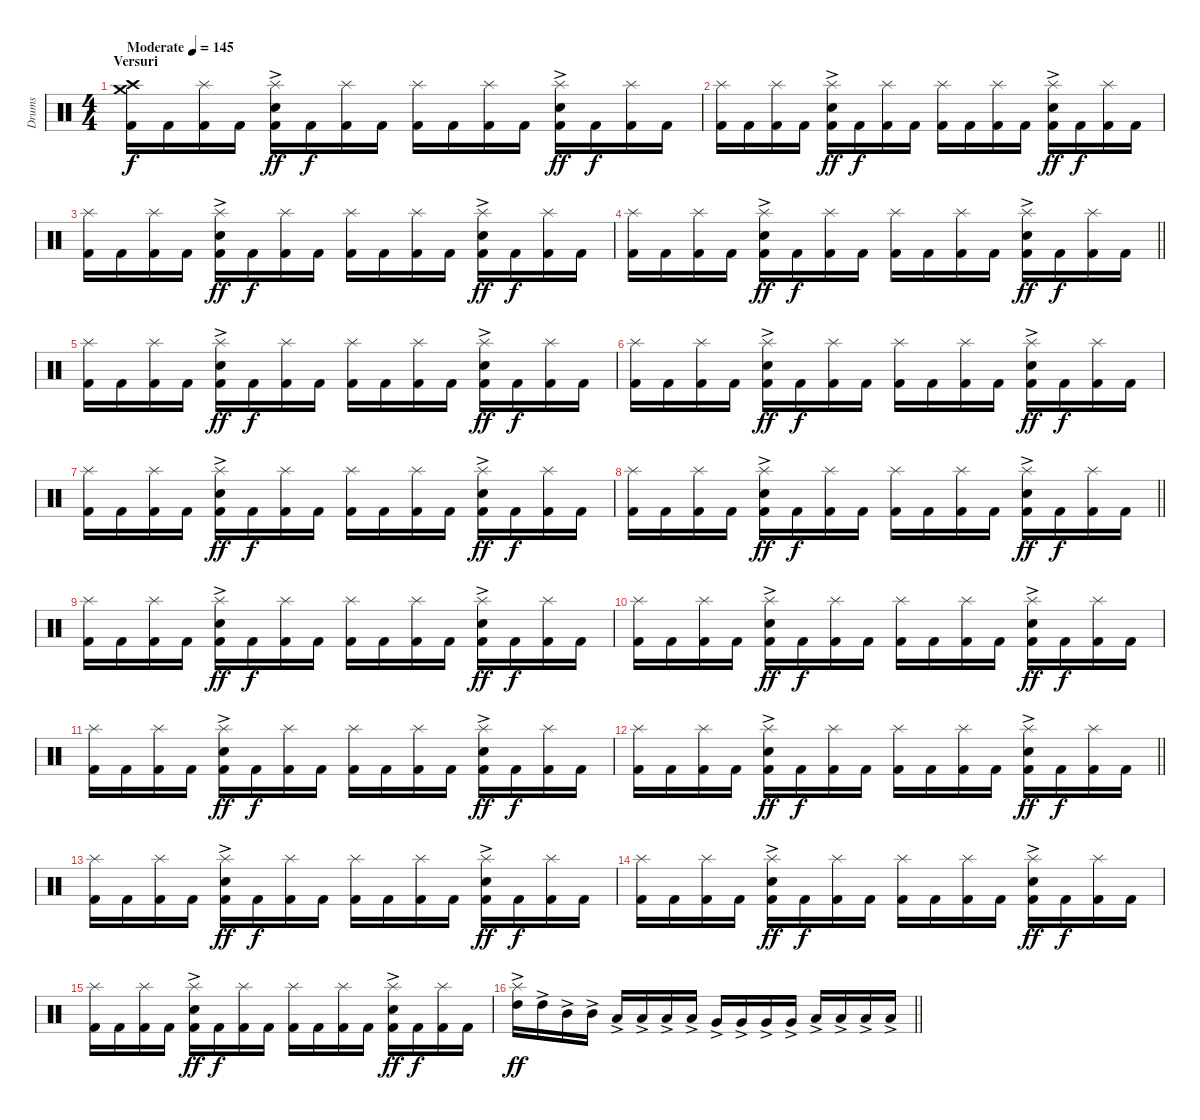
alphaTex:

\track ("Drums" "Drums") {instrument percussion}
\staff {score}
\articulation defaults
\ts (4 4)
\section ("" "Versuri")
\tempo (145 "Moderate")
\clef neutral
\ks c
("Kick (hit) 2" "Crash medium (hit)" "Crash high (hit)").16{dy f} "Kick (hit) 2".16 ("Kick (hit) 2" "Splash (hit)").16 "Kick (hit) 2".16 ("Kick (hit) 2" "Snare (hit) 2"{ac} "Splash (hit)").16{dy ff} "Kick (hit) 2".16{dy f} ("Kick (hit) 2" "Splash (hit)").16 "Kick (hit) 2".16 ("Kick (hit) 2" "Splash (hit)").16 "Kick (hit) 2".16 ("Kick (hit) 2" "Splash (hit)").16 "Kick (hit) 2".16 ("Kick (hit) 2" "Snare (hit) 2"{ac} "Splash (hit)").16{dy ff} "Kick (hit) 2".16{dy f} ("Kick (hit) 2" "Splash (hit)").16 "Kick (hit) 2".16 |
("Kick (hit) 2" "Splash (hit)").16 "Kick (hit) 2".16 ("Kick (hit) 2" "Splash (hit)").16 "Kick (hit) 2".16 ("Kick (hit) 2" "Snare (hit) 2"{ac} "Splash (hit)").16{dy ff} "Kick (hit) 2".16{dy f} ("Kick (hit) 2" "Splash (hit)").16 "Kick (hit) 2".16 ("Kick (hit) 2" "Splash (hit)").16 "Kick (hit) 2".16 ("Kick (hit) 2" "Splash (hit)").16 "Kick (hit) 2".16 ("Kick (hit) 2" "Snare (hit) 2"{ac} "Splash (hit)").16{dy ff} "Kick (hit) 2".16{dy f} ("Kick (hit) 2" "Splash (hit)").16 "Kick (hit) 2".16 |
("Kick (hit) 2" "Splash (hit)").16 "Kick (hit) 2".16 ("Kick (hit) 2" "Splash (hit)").16 "Kick (hit) 2".16 ("Kick (hit) 2" "Snare (hit) 2"{ac} "Splash (hit)").16{dy ff} "Kick (hit) 2".16{dy f} ("Kick (hit) 2" "Splash (hit)").16 "Kick (hit) 2".16 ("Kick (hit) 2" "Splash (hit)").16 "Kick (hit) 2".16 ("Kick (hit) 2" "Splash (hit)").16 "Kick (hit) 2".16 ("Kick (hit) 2" "Snare (hit) 2"{ac} "Splash (hit)").16{dy ff} "Kick (hit) 2".16{dy f} ("Kick (hit) 2" "Splash (hit)").16 "Kick (hit) 2".16 |
\barLineRight lightlight
("Kick (hit) 2" "Splash (hit)").16 "Kick (hit) 2".16 ("Kick (hit) 2" "Splash (hit)").16 "Kick (hit) 2".16 ("Kick (hit) 2" "Snare (hit) 2"{ac} "Splash (hit)").16{dy ff} "Kick (hit) 2".16{dy f} ("Kick (hit) 2" "Splash (hit)").16 "Kick (hit) 2".16 ("Kick (hit) 2" "Splash (hit)").16 "Kick (hit) 2".16 ("Kick (hit) 2" "Splash (hit)").16 "Kick (hit) 2".16 ("Kick (hit) 2" "Snare (hit) 2"{ac} "Splash (hit)").16{dy ff} "Kick (hit) 2".16{dy f} ("Kick (hit) 2" "Splash (hit)").16 "Kick (hit) 2".16 |
\section ("" "")
("Kick (hit) 2" "Splash (hit)").16 "Kick (hit) 2".16 ("Kick (hit) 2" "Splash (hit)").16 "Kick (hit) 2".16 ("Kick (hit) 2" "Snare (hit) 2"{ac} "Splash (hit)").16{dy ff} "Kick (hit) 2".16{dy f} ("Kick (hit) 2" "Splash (hit)").16 "Kick (hit) 2".16 ("Kick (hit) 2" "Splash (hit)").16 "Kick (hit) 2".16 ("Kick (hit) 2" "Splash (hit)").16 "Kick (hit) 2".16 ("Kick (hit) 2" "Snare (hit) 2"{ac} "Splash (hit)").16{dy ff} "Kick (hit) 2".16{dy f} ("Kick (hit) 2" "Splash (hit)").16 "Kick (hit) 2".16 |
("Kick (hit) 2" "Splash (hit)").16 "Kick (hit) 2".16 ("Kick (hit) 2" "Splash (hit)").16 "Kick (hit) 2".16 ("Kick (hit) 2" "Snare (hit) 2"{ac} "Splash (hit)").16{dy ff} "Kick (hit) 2".16{dy f} ("Kick (hit) 2" "Splash (hit)").16 "Kick (hit) 2".16 ("Kick (hit) 2" "Splash (hit)").16 "Kick (hit) 2".16 ("Kick (hit) 2" "Splash (hit)").16 "Kick (hit) 2".16 ("Kick (hit) 2" "Snare (hit) 2"{ac} "Splash (hit)").16{dy ff} "Kick (hit) 2".16{dy f} ("Kick (hit) 2" "Splash (hit)").16 "Kick (hit) 2".16 |
("Kick (hit) 2" "Splash (hit)").16 "Kick (hit) 2".16 ("Kick (hit) 2" "Splash (hit)").16 "Kick (hit) 2".16 ("Kick (hit) 2" "Snare (hit) 2"{ac} "Splash (hit)").16{dy ff} "Kick (hit) 2".16{dy f} ("Kick (hit) 2" "Splash (hit)").16 "Kick (hit) 2".16 ("Kick (hit) 2" "Splash (hit)").16 "Kick (hit) 2".16 ("Kick (hit) 2" "Splash (hit)").16 "Kick (hit) 2".16 ("Kick (hit) 2" "Snare (hit) 2"{ac} "Splash (hit)").16{dy ff} "Kick (hit) 2".16{dy f} ("Kick (hit) 2" "Splash (hit)").16 "Kick (hit) 2".16 |
\barLineRight lightlight
("Kick (hit) 2" "Splash (hit)").16 "Kick (hit) 2".16 ("Kick (hit) 2" "Splash (hit)").16 "Kick (hit) 2".16 ("Kick (hit) 2" "Snare (hit) 2"{ac} "Splash (hit)").16{dy ff} "Kick (hit) 2".16{dy f} ("Kick (hit) 2" "Splash (hit)").16 "Kick (hit) 2".16 ("Kick (hit) 2" "Splash (hit)").16 "Kick (hit) 2".16 ("Kick (hit) 2" "Splash (hit)").16 "Kick (hit) 2".16 ("Kick (hit) 2" "Snare (hit) 2"{ac} "Splash (hit)").16{dy ff} "Kick (hit) 2".16{dy f} ("Kick (hit) 2" "Splash (hit)").16 "Kick (hit) 2".16 |
\section ("" "")
("Kick (hit) 2" "Splash (hit)").16 "Kick (hit) 2".16 ("Kick (hit) 2" "Splash (hit)").16 "Kick (hit) 2".16 ("Kick (hit) 2" "Snare (hit) 2"{ac} "Splash (hit)").16{dy ff} "Kick (hit) 2".16{dy f} ("Kick (hit) 2" "Splash (hit)").16 "Kick (hit) 2".16 ("Kick (hit) 2" "Splash (hit)").16 "Kick (hit) 2".16 ("Kick (hit) 2" "Splash (hit)").16 "Kick (hit) 2".16 ("Kick (hit) 2" "Snare (hit) 2"{ac} "Splash (hit)").16{dy ff} "Kick (hit) 2".16{dy f} ("Kick (hit) 2" "Splash (hit)").16 "Kick (hit) 2".16 |
("Kick (hit) 2" "Splash (hit)").16 "Kick (hit) 2".16 ("Kick (hit) 2" "Splash (hit)").16 "Kick (hit) 2".16 ("Kick (hit) 2" "Snare (hit) 2"{ac} "Splash (hit)").16{dy ff} "Kick (hit) 2".16{dy f} ("Kick (hit) 2" "Splash (hit)").16 "Kick (hit) 2".16 ("Kick (hit) 2" "Splash (hit)").16 "Kick (hit) 2".16 ("Kick (hit) 2" "Splash (hit)").16 "Kick (hit) 2".16 ("Kick (hit) 2" "Snare (hit) 2"{ac} "Splash (hit)").16{dy ff} "Kick (hit) 2".16{dy f} ("Kick (hit) 2" "Splash (hit)").16 "Kick (hit) 2".16 |
("Kick (hit) 2" "Splash (hit)").16 "Kick (hit) 2".16 ("Kick (hit) 2" "Splash (hit)").16 "Kick (hit) 2".16 ("Kick (hit) 2" "Snare (hit) 2"{ac} "Splash (hit)").16{dy ff} "Kick (hit) 2".16{dy f} ("Kick (hit) 2" "Splash (hit)").16 "Kick (hit) 2".16 ("Kick (hit) 2" "Splash (hit)").16 "Kick (hit) 2".16 ("Kick (hit) 2" "Splash (hit)").16 "Kick (hit) 2".16 ("Kick (hit) 2" "Snare (hit) 2"{ac} "Splash (hit)").16{dy ff} "Kick (hit) 2".16{dy f} ("Kick (hit) 2" "Splash (hit)").16 "Kick (hit) 2".16 |
\barLineRight lightlight
("Kick (hit) 2" "Splash (hit)").16 "Kick (hit) 2".16 ("Kick (hit) 2" "Splash (hit)").16 "Kick (hit) 2".16 ("Kick (hit) 2" "Snare (hit) 2"{ac} "Splash (hit)").16{dy ff} "Kick (hit) 2".16{dy f} ("Kick (hit) 2" "Splash (hit)").16 "Kick (hit) 2".16 ("Kick (hit) 2" "Splash (hit)").16 "Kick (hit) 2".16 ("Kick (hit) 2" "Splash (hit)").16 "Kick (hit) 2".16 ("Kick (hit) 2" "Snare (hit) 2"{ac} "Splash (hit)").16{dy ff} "Kick (hit) 2".16{dy f} ("Kick (hit) 2" "Splash (hit)").16 "Kick (hit) 2".16 |
\section ("" "")
("Kick (hit) 2" "Splash (hit)").16 "Kick (hit) 2".16 ("Kick (hit) 2" "Splash (hit)").16 "Kick (hit) 2".16 ("Kick (hit) 2" "Snare (hit) 2"{ac} "Splash (hit)").16{dy ff} "Kick (hit) 2".16{dy f} ("Kick (hit) 2" "Splash (hit)").16 "Kick (hit) 2".16 ("Kick (hit) 2" "Splash (hit)").16 "Kick (hit) 2".16 ("Kick (hit) 2" "Splash (hit)").16 "Kick (hit) 2".16 ("Kick (hit) 2" "Snare (hit) 2"{ac} "Splash (hit)").16{dy ff} "Kick (hit) 2".16{dy f} ("Kick (hit) 2" "Splash (hit)").16 "Kick (hit) 2".16 |
("Kick (hit) 2" "Splash (hit)").16 "Kick (hit) 2".16 ("Kick (hit) 2" "Splash (hit)").16 "Kick (hit) 2".16 ("Kick (hit) 2" "Snare (hit) 2"{ac} "Splash (hit)").16{dy ff} "Kick (hit) 2".16{dy f} ("Kick (hit) 2" "Splash (hit)").16 "Kick (hit) 2".16 ("Kick (hit) 2" "Splash (hit)").16 "Kick (hit) 2".16 ("Kick (hit) 2" "Splash (hit)").16 "Kick (hit) 2".16 ("Kick (hit) 2" "Snare (hit) 2"{ac} "Splash (hit)").16{dy ff} "Kick (hit) 2".16{dy f} ("Kick (hit) 2" "Splash (hit)").16 "Kick (hit) 2".16 |
("Kick (hit) 2" "Splash (hit)").16 "Kick (hit) 2".16 ("Kick (hit) 2" "Splash (hit)").16 "Kick (hit) 2".16 ("Kick (hit) 2" "Snare (hit) 2"{ac} "Splash (hit)").16{dy ff} "Kick (hit) 2".16{dy f} ("Kick (hit) 2" "Splash (hit)").16 "Kick (hit) 2".16 ("Kick (hit) 2" "Splash (hit)").16 "Kick (hit) 2".16 ("Kick (hit) 2" "Splash (hit)").16 "Kick (hit) 2".16 ("Kick (hit) 2" "Snare (hit) 2"{ac} "Splash (hit)").16{dy ff} "Kick (hit) 2".16{dy f} ("Kick (hit) 2" "Splash (hit)").16 "Kick (hit) 2".16 |
\barLineRight lightlight
("High Tom (hit)"{ac} "Splash (hit)").16{dy ff} "High Tom (hit)"{ac}.16 "Mid Tom (hit)"{ac}.16 "Mid Tom (hit)"{ac}.16 "Low Tom (hit)"{ac}.16 "Low Tom (hit)"{ac}.16 "Low Tom (hit)"{ac}.16 "Low Tom (hit)"{ac}.16 "Very Low Tom (hit)"{ac}.16 "Very Low Tom (hit)"{ac}.16 "Very Low Tom (hit)"{ac}.16 "Very Low Tom (hit)"{ac}.16 "Low Floor Tom (hit)"{ac}.16 "Low Floor Tom (hit)"{ac}.16 "Low Floor Tom (hit)"{ac}.16 "Low Floor Tom (hit)"{ac}.16
